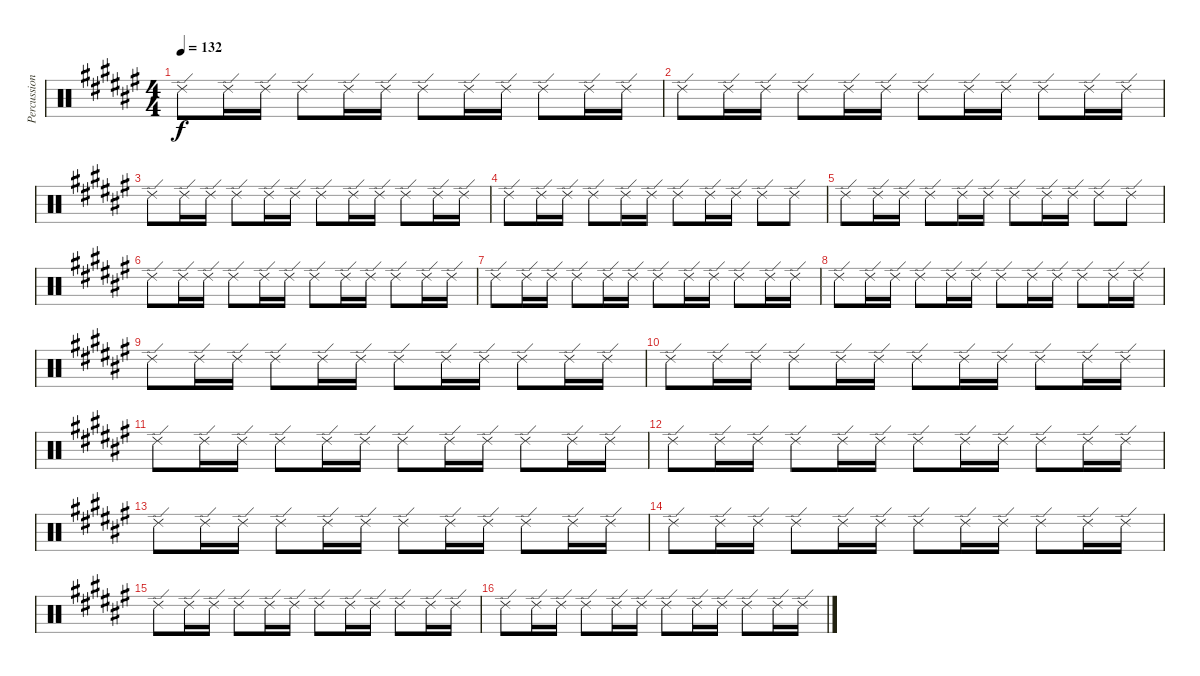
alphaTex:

\track ("Percussion" "Percussion") {instrument percussion}
\staff {score}
\articulation defaults
\ts (4 4)
\tempo 132
\clef neutral
\ks f# "Ride (edge) 2".8{dy f} "Ride (edge) 2".16 "Ride (edge) 2".16 "Ride (edge) 2".8 "Ride (edge) 2".16 "Ride (edge) 2".16 "Ride (edge) 2".8 "Ride (edge) 2".16 "Ride (edge) 2".16 "Ride (edge) 2".8 "Ride (edge) 2".16 "Ride (edge) 2".16
|
"Ride (edge) 2".8 "Ride (edge) 2".16 "Ride (edge) 2".16 "Ride (edge) 2".8 "Ride (edge) 2".16 "Ride (edge) 2".16 "Ride (edge) 2".8 "Ride (edge) 2".16 "Ride (edge) 2".16 "Ride (edge) 2".8 "Ride (edge) 2".16 "Ride (edge) 2".16 |
"Ride (edge) 2".8 "Ride (edge) 2".16 "Ride (edge) 2".16 "Ride (edge) 2".8 "Ride (edge) 2".16 "Ride (edge) 2".16 "Ride (edge) 2".8 "Ride (edge) 2".16 "Ride (edge) 2".16 "Ride (edge) 2".8 "Ride (edge) 2".16 "Ride (edge) 2".16 |
"Ride (edge) 2".8 "Ride (edge) 2".16 "Ride (edge) 2".16 "Ride (edge) 2".8 "Ride (edge) 2".16 "Ride (edge) 2".16 "Ride (edge) 2".8 "Ride (edge) 2".16 "Ride (edge) 2".16 "Ride (edge) 2".8 "Ride (edge) 2".8 |
"Ride (edge) 2".8 "Ride (edge) 2".16 "Ride (edge) 2".16 "Ride (edge) 2".8 "Ride (edge) 2".16 "Ride (edge) 2".16 "Ride (edge) 2".8 "Ride (edge) 2".16 "Ride (edge) 2".16 "Ride (edge) 2".8 "Ride (edge) 2".8 |
"Ride (edge) 2".8 "Ride (edge) 2".16 "Ride (edge) 2".16 "Ride (edge) 2".8 "Ride (edge) 2".16 "Ride (edge) 2".16 "Ride (edge) 2".8 "Ride (edge) 2".16 "Ride (edge) 2".16 "Ride (edge) 2".8 "Ride (edge) 2".16 "Ride (edge) 2".16 |
"Ride (edge) 2".8 "Ride (edge) 2".16 "Ride (edge) 2".16 "Ride (edge) 2".8 "Ride (edge) 2".16 "Ride (edge) 2".16 "Ride (edge) 2".8 "Ride (edge) 2".16 "Ride (edge) 2".16 "Ride (edge) 2".8 "Ride (edge) 2".16 "Ride (edge) 2".16 |
"Ride (edge) 2".8 "Ride (edge) 2".16 "Ride (edge) 2".16 "Ride (edge) 2".8 "Ride (edge) 2".16 "Ride (edge) 2".16 "Ride (edge) 2".8 "Ride (edge) 2".16 "Ride (edge) 2".16 "Ride (edge) 2".8 "Ride (edge) 2".16 "Ride (edge) 2".16 |
"Ride (edge) 2".8 "Ride (edge) 2".16 "Ride (edge) 2".16 "Ride (edge) 2".8 "Ride (edge) 2".16 "Ride (edge) 2".16 "Ride (edge) 2".8 "Ride (edge) 2".16 "Ride (edge) 2".16 "Ride (edge) 2".8 "Ride (edge) 2".16 "Ride (edge) 2".16 |
"Ride (edge) 2".8 "Ride (edge) 2".16 "Ride (edge) 2".16 "Ride (edge) 2".8 "Ride (edge) 2".16 "Ride (edge) 2".16 "Ride (edge) 2".8 "Ride (edge) 2".16 "Ride (edge) 2".16 "Ride (edge) 2".8 "Ride (edge) 2".16 "Ride (edge) 2".16 |
"Ride (edge) 2".8 "Ride (edge) 2".16 "Ride (edge) 2".16 "Ride (edge) 2".8 "Ride (edge) 2".16 "Ride (edge) 2".16 "Ride (edge) 2".8 "Ride (edge) 2".16 "Ride (edge) 2".16 "Ride (edge) 2".8 "Ride (edge) 2".16 "Ride (edge) 2".16 |
"Ride (edge) 2".8 "Ride (edge) 2".16 "Ride (edge) 2".16 "Ride (edge) 2".8 "Ride (edge) 2".16 "Ride (edge) 2".16 "Ride (edge) 2".8 "Ride (edge) 2".16 "Ride (edge) 2".16 "Ride (edge) 2".8 "Ride (edge) 2".16 "Ride (edge) 2".16 |
"Ride (edge) 2".8 "Ride (edge) 2".16 "Ride (edge) 2".16 "Ride (edge) 2".8 "Ride (edge) 2".16 "Ride (edge) 2".16 "Ride (edge) 2".8 "Ride (edge) 2".16 "Ride (edge) 2".16 "Ride (edge) 2".8 "Ride (edge) 2".16 "Ride (edge) 2".16 |
"Ride (edge) 2".8 "Ride (edge) 2".16 "Ride (edge) 2".16 "Ride (edge) 2".8 "Ride (edge) 2".16 "Ride (edge) 2".16 "Ride (edge) 2".8 "Ride (edge) 2".16 "Ride (edge) 2".16 "Ride (edge) 2".8 "Ride (edge) 2".16 "Ride (edge) 2".16 |
"Ride (edge) 2".8 "Ride (edge) 2".16 "Ride (edge) 2".16 "Ride (edge) 2".8 "Ride (edge) 2".16 "Ride (edge) 2".16 "Ride (edge) 2".8 "Ride (edge) 2".16 "Ride (edge) 2".16 "Ride (edge) 2".8 "Ride (edge) 2".16 "Ride (edge) 2".16 |
"Ride (edge) 2".8 "Ride (edge) 2".16 "Ride (edge) 2".16 "Ride (edge) 2".8 "Ride (edge) 2".16 "Ride (edge) 2".16 "Ride (edge) 2".8 "Ride (edge) 2".16 "Ride (edge) 2".16 "Ride (edge) 2".8 "Ride (edge) 2".16 "Ride (edge) 2".16
